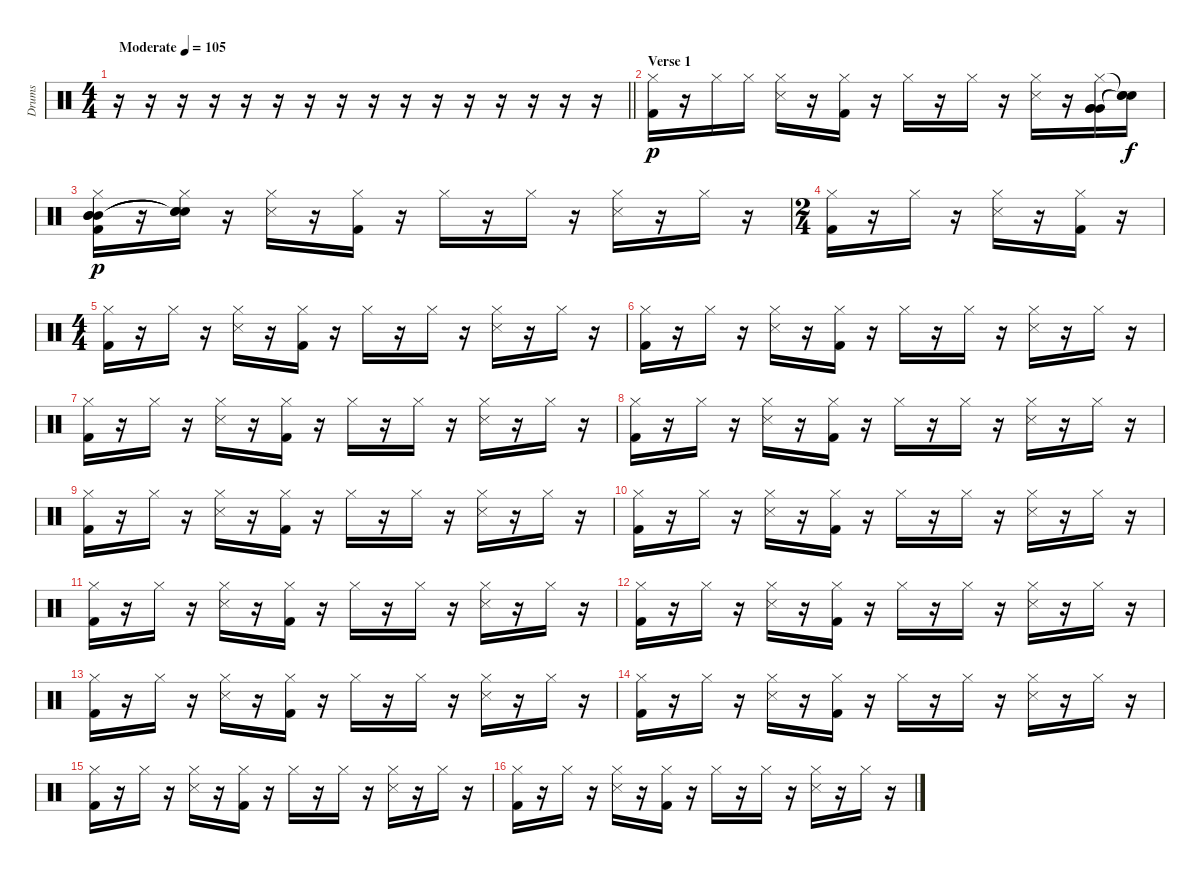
\track ("Drums" "Drums") {instrument percussion}
\staff {score}
\articulation defaults
\ts (4 4)
\tempo (105 "Moderate")
\clef neutral
\barLineRight lightlight
\ks c
r.16{dy p} r.16 r.16 r.16 r.16 r.16 r.16 r.16 r.16 r.16 r.16 r.16 r.16 r.16 r.16 r.16 |
\section ("" "Verse 1")
("Hi-Hat (closed)" "Kick (hit) 2").16 r.16 "Hi-Hat (closed)".16 "Hi-Hat (closed)".16 ("Hi-Hat (closed)" "Snare (side stick) 3").16 r.16 ("Hi-Hat (closed)" "Kick (hit) 2").16 r.16 "Hi-Hat (closed)".16 r.16 "Hi-Hat (closed)".16 r.16 ("Hi-Hat (closed)" "Snare (side stick) 3").16 r.16 ("Hi-Hat (closed)" "Very Low Tom (hit)" "Very Low Tom (hit)" "Very Low Tom (hit)").16 ("Snare (hit)"{t} "Snare (hit)"{t} "Snare (hit)"{t}).16{dy f} |
("Hi-Hat (closed)" "Mid Tom (hit)" "Mid Tom (hit)" "Mid Tom (hit)" "Kick (hit) 2").16{dy p} r.16 ("Hi-Hat (closed)" "Snare (hit)"{t} "Snare (hit)"{t} "Snare (hit)"{t}).16 r.16 ("Hi-Hat (closed)" "Snare (side stick) 3").16 r.16 ("Hi-Hat (closed)" "Kick (hit) 2").16 r.16 "Hi-Hat (closed)".16 r.16 "Hi-Hat (closed)".16 r.16 ("Hi-Hat (closed)" "Snare (side stick) 3").16 r.16 "Hi-Hat (closed)".16 r.16 |
\ts (2 4)
("Hi-Hat (closed)" "Kick (hit) 2").16 r.16 "Hi-Hat (closed)".16 r.16 ("Hi-Hat (closed)" "Snare (side stick) 3").16 r.16 ("Hi-Hat (closed)" "Kick (hit) 2").16 r.16 |
\ts (4 4)
("Hi-Hat (closed)" "Kick (hit) 2").16 r.16 "Hi-Hat (closed)".16 r.16 ("Hi-Hat (closed)" "Snare (side stick) 3").16 r.16 ("Hi-Hat (closed)" "Kick (hit) 2").16 r.16 "Hi-Hat (closed)".16 r.16 "Hi-Hat (closed)".16 r.16 ("Hi-Hat (closed)" "Snare (side stick) 3").16 r.16 "Hi-Hat (closed)".16 r.16 |
("Hi-Hat (closed)" "Kick (hit) 2").16 r.16 "Hi-Hat (closed)".16 r.16 ("Hi-Hat (closed)" "Snare (side stick) 3").16 r.16 ("Hi-Hat (closed)" "Kick (hit) 2").16 r.16 "Hi-Hat (closed)".16 r.16 "Hi-Hat (closed)".16 r.16 ("Hi-Hat (closed)" "Snare (side stick) 3").16 r.16 "Hi-Hat (closed)".16 r.16 |
("Hi-Hat (closed)" "Kick (hit) 2").16 r.16 "Hi-Hat (closed)".16 r.16 ("Hi-Hat (closed)" "Snare (side stick) 3").16 r.16 ("Hi-Hat (closed)" "Kick (hit) 2").16 r.16 "Hi-Hat (closed)".16 r.16 "Hi-Hat (closed)".16 r.16 ("Hi-Hat (closed)" "Snare (side stick) 3").16 r.16 "Hi-Hat (closed)".16 r.16 |
("Hi-Hat (closed)" "Kick (hit) 2").16 r.16 "Hi-Hat (closed)".16 r.16 ("Hi-Hat (closed)" "Snare (side stick) 3").16 r.16 ("Hi-Hat (closed)" "Kick (hit) 2").16 r.16 "Hi-Hat (closed)".16 r.16 "Hi-Hat (closed)".16 r.16 ("Hi-Hat (closed)" "Snare (side stick) 3").16 r.16 "Hi-Hat (closed)".16 r.16 |
("Hi-Hat (closed)" "Kick (hit) 2").16 r.16 "Hi-Hat (closed)".16 r.16 ("Hi-Hat (closed)" "Snare (side stick) 3").16 r.16 ("Hi-Hat (closed)" "Kick (hit) 2").16 r.16 "Hi-Hat (closed)".16 r.16 "Hi-Hat (closed)".16 r.16 ("Hi-Hat (closed)" "Snare (side stick) 3").16 r.16 "Hi-Hat (closed)".16 r.16 |
("Hi-Hat (closed)" "Kick (hit) 2").16 r.16 "Hi-Hat (closed)".16 r.16 ("Hi-Hat (closed)" "Snare (side stick) 3").16 r.16 ("Hi-Hat (closed)" "Kick (hit) 2").16 r.16 "Hi-Hat (closed)".16 r.16 "Hi-Hat (closed)".16 r.16 ("Hi-Hat (closed)" "Snare (side stick) 3").16 r.16 "Hi-Hat (closed)".16 r.16 |
("Hi-Hat (closed)" "Kick (hit) 2").16 r.16 "Hi-Hat (closed)".16 r.16 ("Hi-Hat (closed)" "Snare (side stick) 3").16 r.16 ("Hi-Hat (closed)" "Kick (hit) 2").16 r.16 "Hi-Hat (closed)".16 r.16 "Hi-Hat (closed)".16 r.16 ("Hi-Hat (closed)" "Snare (side stick) 3").16 r.16 "Hi-Hat (closed)".16 r.16 |
("Hi-Hat (closed)" "Kick (hit) 2").16 r.16 "Hi-Hat (closed)".16 r.16 ("Hi-Hat (closed)" "Snare (side stick) 3").16 r.16 ("Hi-Hat (closed)" "Kick (hit) 2").16 r.16 "Hi-Hat (closed)".16 r.16 "Hi-Hat (closed)".16 r.16 ("Hi-Hat (closed)" "Snare (side stick) 3").16 r.16 "Hi-Hat (closed)".16 r.16 |
("Hi-Hat (closed)" "Kick (hit) 2").16 r.16 "Hi-Hat (closed)".16 r.16 ("Hi-Hat (closed)" "Snare (side stick) 3").16 r.16 ("Hi-Hat (closed)" "Kick (hit) 2").16 r.16 "Hi-Hat (closed)".16 r.16 "Hi-Hat (closed)".16 r.16 ("Hi-Hat (closed)" "Snare (side stick) 3").16 r.16 "Hi-Hat (closed)".16 r.16 |
("Hi-Hat (closed)" "Kick (hit) 2").16 r.16 "Hi-Hat (closed)".16 r.16 ("Hi-Hat (closed)" "Snare (side stick) 3").16 r.16 ("Hi-Hat (closed)" "Kick (hit) 2").16 r.16 "Hi-Hat (closed)".16 r.16 "Hi-Hat (closed)".16 r.16 ("Hi-Hat (closed)" "Snare (side stick) 3").16 r.16 "Hi-Hat (closed)".16 r.16 |
("Hi-Hat (closed)" "Kick (hit) 2").16 r.16 "Hi-Hat (closed)".16 r.16 ("Hi-Hat (closed)" "Snare (side stick) 3").16 r.16 ("Hi-Hat (closed)" "Kick (hit) 2").16 r.16 "Hi-Hat (closed)".16 r.16 "Hi-Hat (closed)".16 r.16 ("Hi-Hat (closed)" "Snare (side stick) 3").16 r.16 "Hi-Hat (closed)".16 r.16 |
("Hi-Hat (closed)" "Kick (hit) 2").16 r.16 "Hi-Hat (closed)".16 r.16 ("Hi-Hat (closed)" "Snare (side stick) 3").16 r.16 ("Hi-Hat (closed)" "Kick (hit) 2").16 r.16 "Hi-Hat (closed)".16 r.16 "Hi-Hat (closed)".16 r.16 ("Hi-Hat (closed)" "Snare (side stick) 3").16 r.16 "Hi-Hat (closed)".16 r.16
